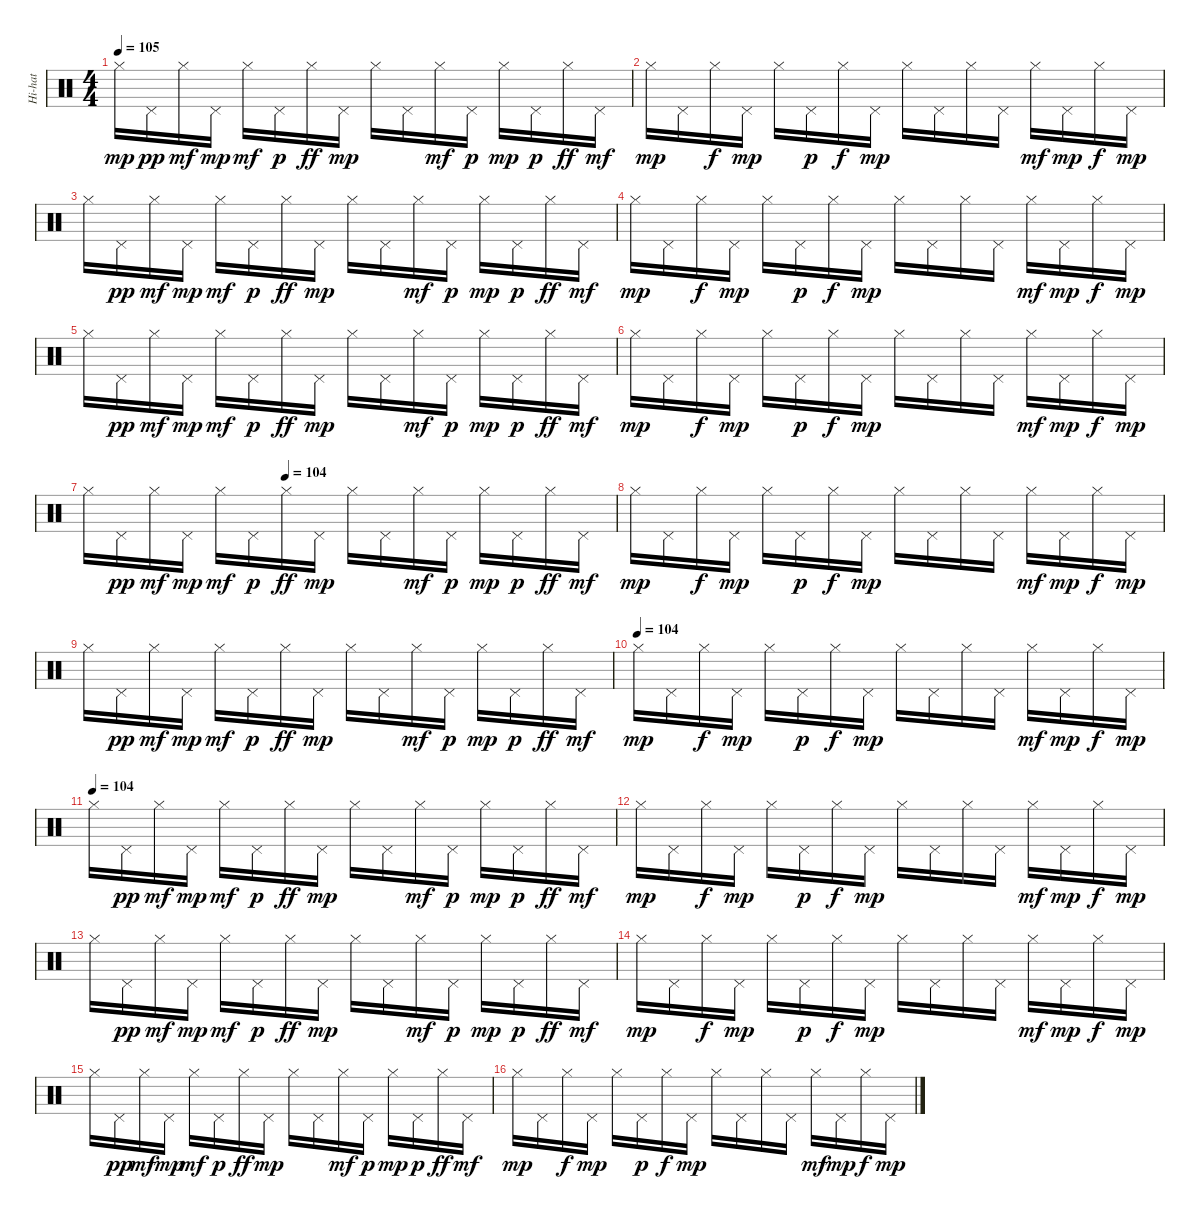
\track ("Hi-hat" "Hi-hat") {instrument percussion}
\staff {score}
\articulation defaults
\ts (4 4)
\tempo 105
\clef neutral
\ks c "Hi-Hat (closed)".16{dy mp} "Pedal Hi-Hat (hit)".16{dy pp} "Hi-Hat (closed)".16{dy mf} "Pedal Hi-Hat (hit)".16{dy mp} "Hi-Hat (closed)".16{dy mf} "Pedal Hi-Hat (hit)".16{dy p} "Hi-Hat (closed)".16{dy ff} "Pedal Hi-Hat (hit)".16{dy mp} "Hi-Hat (closed)".16 "Pedal Hi-Hat (hit)".16 "Hi-Hat (closed)".16{dy mf} "Pedal Hi-Hat (hit)".16{dy p} "Hi-Hat (closed)".16{dy mp} "Pedal Hi-Hat (hit)".16{dy p} "Hi-Hat (closed)".16{dy ff} "Pedal Hi-Hat (hit)".16{dy mf}
|
"Hi-Hat (closed)".16{dy mp} "Pedal Hi-Hat (hit)".16 "Hi-Hat (closed)".16{dy f} "Pedal Hi-Hat (hit)".16{dy mp} "Hi-Hat (closed)".16 "Pedal Hi-Hat (hit)".16{dy p} "Hi-Hat (closed)".16{dy f} "Pedal Hi-Hat (hit)".16{dy mp} "Hi-Hat (closed)".16 "Pedal Hi-Hat (hit)".16 "Hi-Hat (closed)".16 "Pedal Hi-Hat (hit)".16 "Hi-Hat (closed)".16{dy mf} "Pedal Hi-Hat (hit)".16{dy mp} "Hi-Hat (closed)".16{dy f} "Pedal Hi-Hat (hit)".16{dy mp} |
"Hi-Hat (closed)".16 "Pedal Hi-Hat (hit)".16{dy pp} "Hi-Hat (closed)".16{dy mf} "Pedal Hi-Hat (hit)".16{dy mp} "Hi-Hat (closed)".16{dy mf} "Pedal Hi-Hat (hit)".16{dy p} "Hi-Hat (closed)".16{dy ff} "Pedal Hi-Hat (hit)".16{dy mp} "Hi-Hat (closed)".16 "Pedal Hi-Hat (hit)".16 "Hi-Hat (closed)".16{dy mf} "Pedal Hi-Hat (hit)".16{dy p} "Hi-Hat (closed)".16{dy mp} "Pedal Hi-Hat (hit)".16{dy p} "Hi-Hat (closed)".16{dy ff} "Pedal Hi-Hat (hit)".16{dy mf} |
"Hi-Hat (closed)".16{dy mp} "Pedal Hi-Hat (hit)".16 "Hi-Hat (closed)".16{dy f} "Pedal Hi-Hat (hit)".16{dy mp} "Hi-Hat (closed)".16 "Pedal Hi-Hat (hit)".16{dy p} "Hi-Hat (closed)".16{dy f} "Pedal Hi-Hat (hit)".16{dy mp} "Hi-Hat (closed)".16 "Pedal Hi-Hat (hit)".16 "Hi-Hat (closed)".16 "Pedal Hi-Hat (hit)".16 "Hi-Hat (closed)".16{dy mf} "Pedal Hi-Hat (hit)".16{dy mp} "Hi-Hat (closed)".16{dy f} "Pedal Hi-Hat (hit)".16{dy mp} |
"Hi-Hat (closed)".16 "Pedal Hi-Hat (hit)".16{dy pp} "Hi-Hat (closed)".16{dy mf} "Pedal Hi-Hat (hit)".16{dy mp} "Hi-Hat (closed)".16{dy mf} "Pedal Hi-Hat (hit)".16{dy p} "Hi-Hat (closed)".16{dy ff} "Pedal Hi-Hat (hit)".16{dy mp} "Hi-Hat (closed)".16 "Pedal Hi-Hat (hit)".16 "Hi-Hat (closed)".16{dy mf} "Pedal Hi-Hat (hit)".16{dy p} "Hi-Hat (closed)".16{dy mp} "Pedal Hi-Hat (hit)".16{dy p} "Hi-Hat (closed)".16{dy ff} "Pedal Hi-Hat (hit)".16{dy mf} |
"Hi-Hat (closed)".16{dy mp} "Pedal Hi-Hat (hit)".16 "Hi-Hat (closed)".16{dy f} "Pedal Hi-Hat (hit)".16{dy mp} "Hi-Hat (closed)".16 "Pedal Hi-Hat (hit)".16{dy p} "Hi-Hat (closed)".16{dy f} "Pedal Hi-Hat (hit)".16{dy mp} "Hi-Hat (closed)".16 "Pedal Hi-Hat (hit)".16 "Hi-Hat (closed)".16 "Pedal Hi-Hat (hit)".16 "Hi-Hat (closed)".16{dy mf} "Pedal Hi-Hat (hit)".16{dy mp} "Hi-Hat (closed)".16{dy f} "Pedal Hi-Hat (hit)".16{dy mp} |
\tempo (104 0.375)
"Hi-Hat (closed)".16 "Pedal Hi-Hat (hit)".16{dy pp} "Hi-Hat (closed)".16{dy mf} "Pedal Hi-Hat (hit)".16{dy mp} "Hi-Hat (closed)".16{dy mf} "Pedal Hi-Hat (hit)".16{dy p} "Hi-Hat (closed)".16{dy ff} "Pedal Hi-Hat (hit)".16{dy mp} "Hi-Hat (closed)".16 "Pedal Hi-Hat (hit)".16 "Hi-Hat (closed)".16{dy mf} "Pedal Hi-Hat (hit)".16{dy p} "Hi-Hat (closed)".16{dy mp} "Pedal Hi-Hat (hit)".16{dy p} "Hi-Hat (closed)".16{dy ff} "Pedal Hi-Hat (hit)".16{dy mf} |
"Hi-Hat (closed)".16{dy mp} "Pedal Hi-Hat (hit)".16 "Hi-Hat (closed)".16{dy f} "Pedal Hi-Hat (hit)".16{dy mp} "Hi-Hat (closed)".16 "Pedal Hi-Hat (hit)".16{dy p} "Hi-Hat (closed)".16{dy f} "Pedal Hi-Hat (hit)".16{dy mp} "Hi-Hat (closed)".16 "Pedal Hi-Hat (hit)".16 "Hi-Hat (closed)".16 "Pedal Hi-Hat (hit)".16 "Hi-Hat (closed)".16{dy mf} "Pedal Hi-Hat (hit)".16{dy mp} "Hi-Hat (closed)".16{dy f} "Pedal Hi-Hat (hit)".16{dy mp} |
"Hi-Hat (closed)".16 "Pedal Hi-Hat (hit)".16{dy pp} "Hi-Hat (closed)".16{dy mf} "Pedal Hi-Hat (hit)".16{dy mp} "Hi-Hat (closed)".16{dy mf} "Pedal Hi-Hat (hit)".16{dy p} "Hi-Hat (closed)".16{dy ff} "Pedal Hi-Hat (hit)".16{dy mp} "Hi-Hat (closed)".16 "Pedal Hi-Hat (hit)".16 "Hi-Hat (closed)".16{dy mf} "Pedal Hi-Hat (hit)".16{dy p} "Hi-Hat (closed)".16{dy mp} "Pedal Hi-Hat (hit)".16{dy p} "Hi-Hat (closed)".16{dy ff} "Pedal Hi-Hat (hit)".16{dy mf} |
\tempo (104)
"Hi-Hat (closed)".16{dy mp} "Pedal Hi-Hat (hit)".16 "Hi-Hat (closed)".16{dy f} "Pedal Hi-Hat (hit)".16{dy mp} "Hi-Hat (closed)".16 "Pedal Hi-Hat (hit)".16{dy p} "Hi-Hat (closed)".16{dy f} "Pedal Hi-Hat (hit)".16{dy mp} "Hi-Hat (closed)".16 "Pedal Hi-Hat (hit)".16 "Hi-Hat (closed)".16 "Pedal Hi-Hat (hit)".16 "Hi-Hat (closed)".16{dy mf} "Pedal Hi-Hat (hit)".16{dy mp} "Hi-Hat (closed)".16{dy f} "Pedal Hi-Hat (hit)".16{dy mp} |
\tempo (104)
"Hi-Hat (closed)".16 "Pedal Hi-Hat (hit)".16{dy pp} "Hi-Hat (closed)".16{dy mf} "Pedal Hi-Hat (hit)".16{dy mp} "Hi-Hat (closed)".16{dy mf} "Pedal Hi-Hat (hit)".16{dy p} "Hi-Hat (closed)".16{dy ff} "Pedal Hi-Hat (hit)".16{dy mp} "Hi-Hat (closed)".16 "Pedal Hi-Hat (hit)".16 "Hi-Hat (closed)".16{dy mf} "Pedal Hi-Hat (hit)".16{dy p} "Hi-Hat (closed)".16{dy mp} "Pedal Hi-Hat (hit)".16{dy p} "Hi-Hat (closed)".16{dy ff} "Pedal Hi-Hat (hit)".16{dy mf} |
"Hi-Hat (closed)".16{dy mp} "Pedal Hi-Hat (hit)".16 "Hi-Hat (closed)".16{dy f} "Pedal Hi-Hat (hit)".16{dy mp} "Hi-Hat (closed)".16 "Pedal Hi-Hat (hit)".16{dy p} "Hi-Hat (closed)".16{dy f} "Pedal Hi-Hat (hit)".16{dy mp} "Hi-Hat (closed)".16 "Pedal Hi-Hat (hit)".16 "Hi-Hat (closed)".16 "Pedal Hi-Hat (hit)".16 "Hi-Hat (closed)".16{dy mf} "Pedal Hi-Hat (hit)".16{dy mp} "Hi-Hat (closed)".16{dy f} "Pedal Hi-Hat (hit)".16{dy mp} |
"Hi-Hat (closed)".16 "Pedal Hi-Hat (hit)".16{dy pp} "Hi-Hat (closed)".16{dy mf} "Pedal Hi-Hat (hit)".16{dy mp} "Hi-Hat (closed)".16{dy mf} "Pedal Hi-Hat (hit)".16{dy p} "Hi-Hat (closed)".16{dy ff} "Pedal Hi-Hat (hit)".16{dy mp} "Hi-Hat (closed)".16 "Pedal Hi-Hat (hit)".16 "Hi-Hat (closed)".16{dy mf} "Pedal Hi-Hat (hit)".16{dy p} "Hi-Hat (closed)".16{dy mp} "Pedal Hi-Hat (hit)".16{dy p} "Hi-Hat (closed)".16{dy ff} "Pedal Hi-Hat (hit)".16{dy mf} |
"Hi-Hat (closed)".16{dy mp} "Pedal Hi-Hat (hit)".16 "Hi-Hat (closed)".16{dy f} "Pedal Hi-Hat (hit)".16{dy mp} "Hi-Hat (closed)".16 "Pedal Hi-Hat (hit)".16{dy p} "Hi-Hat (closed)".16{dy f} "Pedal Hi-Hat (hit)".16{dy mp} "Hi-Hat (closed)".16 "Pedal Hi-Hat (hit)".16 "Hi-Hat (closed)".16 "Pedal Hi-Hat (hit)".16 "Hi-Hat (closed)".16{dy mf} "Pedal Hi-Hat (hit)".16{dy mp} "Hi-Hat (closed)".16{dy f} "Pedal Hi-Hat (hit)".16{dy mp} |
"Hi-Hat (closed)".16 "Pedal Hi-Hat (hit)".16{dy pp} "Hi-Hat (closed)".16{dy mf} "Pedal Hi-Hat (hit)".16{dy mp} "Hi-Hat (closed)".16{dy mf} "Pedal Hi-Hat (hit)".16{dy p} "Hi-Hat (closed)".16{dy ff} "Pedal Hi-Hat (hit)".16{dy mp} "Hi-Hat (closed)".16 "Pedal Hi-Hat (hit)".16 "Hi-Hat (closed)".16{dy mf} "Pedal Hi-Hat (hit)".16{dy p} "Hi-Hat (closed)".16{dy mp} "Pedal Hi-Hat (hit)".16{dy p} "Hi-Hat (closed)".16{dy ff} "Pedal Hi-Hat (hit)".16{dy mf} |
"Hi-Hat (closed)".16{dy mp} "Pedal Hi-Hat (hit)".16 "Hi-Hat (closed)".16{dy f} "Pedal Hi-Hat (hit)".16{dy mp} "Hi-Hat (closed)".16 "Pedal Hi-Hat (hit)".16{dy p} "Hi-Hat (closed)".16{dy f} "Pedal Hi-Hat (hit)".16{dy mp} "Hi-Hat (closed)".16 "Pedal Hi-Hat (hit)".16 "Hi-Hat (closed)".16 "Pedal Hi-Hat (hit)".16 "Hi-Hat (closed)".16{dy mf} "Pedal Hi-Hat (hit)".16{dy mp} "Hi-Hat (closed)".16{dy f} "Pedal Hi-Hat (hit)".16{dy mp}
